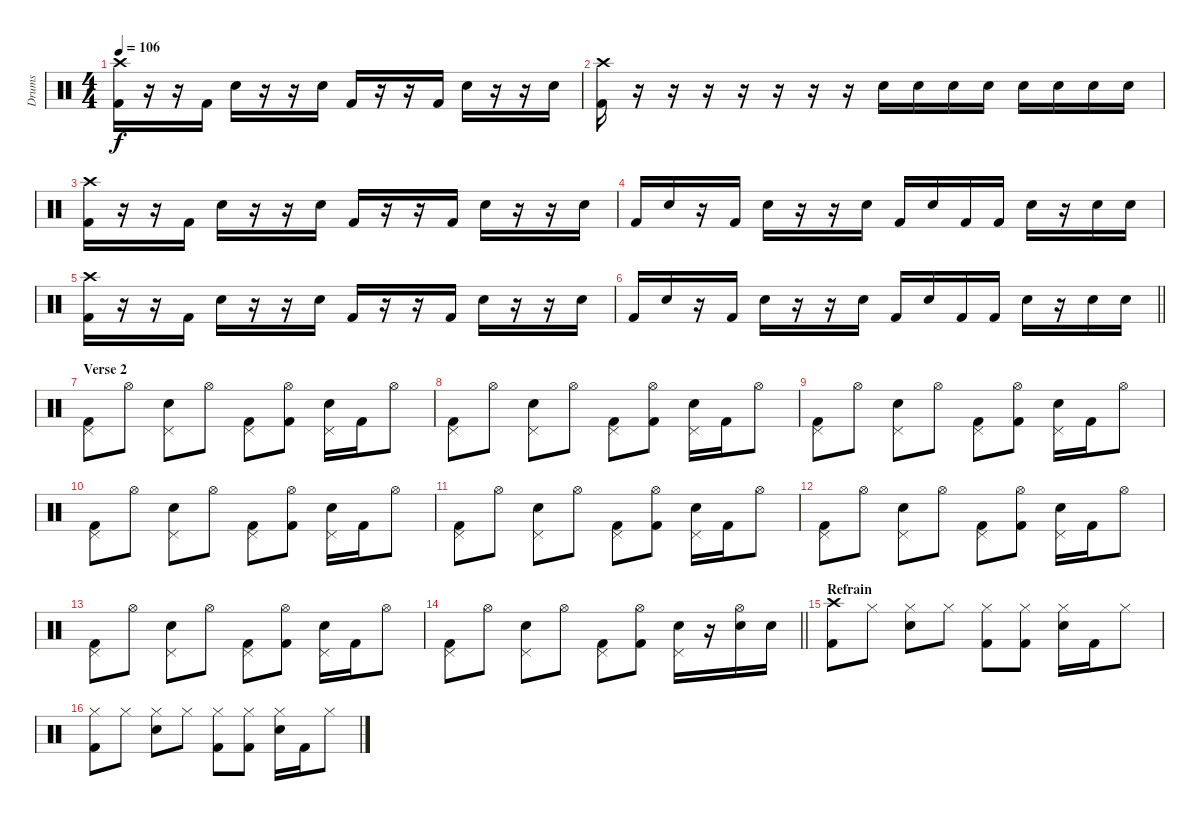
\track ("Drums" "Drums") {instrument percussion}
\staff {score}
\articulation defaults
\ts (4 4)
\tempo 106
\clef neutral
\ks c
("Crash high (hit)" "Kick (hit) 2").16{dy f} r.16 r.16 "Kick (hit) 2".16 "Electric Snare (hit)".16 r.16 r.16 "Electric Snare (hit)".16 "Kick (hit) 2".16 r.16 r.16 "Kick (hit) 2".16 "Electric Snare (hit)".16 r.16 r.16 "Electric Snare (hit)".16 |
("Crash high (hit)" "Kick (hit) 2").16 r.16 r.16 r.16 r.16 r.16 r.16 r.16 "Snare (hit) 2".16 "Snare (hit) 2".16 "Snare (hit) 2".16 "Snare (hit) 2".16 "Snare (hit) 2".16 "Snare (hit) 2".16 "Snare (hit) 2".16 "Snare (hit) 2".16 |
("Crash high (hit)" "Kick (hit) 2").16 r.16 r.16 "Kick (hit) 2".16 "Electric Snare (hit)".16 r.16 r.16 "Electric Snare (hit)".16 "Kick (hit) 2".16 r.16 r.16 "Kick (hit) 2".16 "Electric Snare (hit)".16 r.16 r.16 "Electric Snare (hit)".16 |
"Kick (hit) 2".16 "Electric Snare (hit)".16 r.16 "Kick (hit) 2".16 "Electric Snare (hit)".16 r.16 r.16 "Electric Snare (hit)".16 "Kick (hit) 2".16 "Electric Snare (hit)".16 "Kick (hit) 2".16 "Kick (hit) 2".16 "Electric Snare (hit)".16 r.16 "Electric Snare (hit)".16 "Electric Snare (hit)".16 |
("Crash high (hit)" "Kick (hit) 2").16 r.16 r.16 "Kick (hit) 2".16 "Electric Snare (hit)".16 r.16 r.16 "Electric Snare (hit)".16 "Kick (hit) 2".16 r.16 r.16 "Kick (hit) 2".16 "Electric Snare (hit)".16 r.16 r.16 "Electric Snare (hit)".16 |
\barLineRight lightlight "Kick (hit) 2".16 "Electric Snare (hit)".16
r.16 "Kick (hit) 2".16 "Electric Snare (hit)".16 r.16 r.16 "Electric Snare (hit)".16 "Kick (hit) 2".16 "Electric Snare (hit)".16 "Kick (hit) 2".16 "Kick (hit) 2".16 "Electric Snare (hit)".16 r.16 "Electric Snare (hit)".16 "Electric Snare (hit)".16 |
\section ("" "Verse 2")
("Pedal Hi-Hat (hit)" "Kick (hit) 2").8 "Hi-Hat (open)".8 ("Pedal Hi-Hat (hit)" "Electric Snare (hit)").8 "Hi-Hat (open)".8 ("Pedal Hi-Hat (hit)" "Kick (hit) 2").8 ("Hi-Hat (open)" "Kick (hit) 2").8 ("Pedal Hi-Hat (hit)" "Electric Snare (hit)").16 "Kick (hit) 2".16 "Hi-Hat (open)".8 |
("Pedal Hi-Hat (hit)" "Kick (hit) 2").8 "Hi-Hat (open)".8 ("Pedal Hi-Hat (hit)" "Electric Snare (hit)").8 "Hi-Hat (open)".8 ("Pedal Hi-Hat (hit)" "Kick (hit) 2").8 ("Hi-Hat (open)" "Kick (hit) 2").8 ("Pedal Hi-Hat (hit)" "Electric Snare (hit)").16 "Kick (hit) 2".16 "Hi-Hat (open)".8 |
("Pedal Hi-Hat (hit)" "Kick (hit) 2").8 "Hi-Hat (open)".8 ("Pedal Hi-Hat (hit)" "Electric Snare (hit)").8 "Hi-Hat (open)".8 ("Pedal Hi-Hat (hit)" "Kick (hit) 2").8 ("Hi-Hat (open)" "Kick (hit) 2").8 ("Pedal Hi-Hat (hit)" "Electric Snare (hit)").16 "Kick (hit) 2".16 "Hi-Hat (open)".8 |
("Pedal Hi-Hat (hit)" "Kick (hit) 2").8 "Hi-Hat (open)".8 ("Pedal Hi-Hat (hit)" "Electric Snare (hit)").8 "Hi-Hat (open)".8 ("Pedal Hi-Hat (hit)" "Kick (hit) 2").8 ("Hi-Hat (open)" "Kick (hit) 2").8 ("Pedal Hi-Hat (hit)" "Electric Snare (hit)").16 "Kick (hit) 2".16 "Hi-Hat (open)".8 |
("Pedal Hi-Hat (hit)" "Kick (hit) 2").8 "Hi-Hat (open)".8 ("Pedal Hi-Hat (hit)" "Electric Snare (hit)").8 "Hi-Hat (open)".8 ("Pedal Hi-Hat (hit)" "Kick (hit) 2").8 ("Hi-Hat (open)" "Kick (hit) 2").8 ("Pedal Hi-Hat (hit)" "Electric Snare (hit)").16 "Kick (hit) 2".16 "Hi-Hat (open)".8 |
("Pedal Hi-Hat (hit)" "Kick (hit) 2").8 "Hi-Hat (open)".8 ("Pedal Hi-Hat (hit)" "Electric Snare (hit)").8 "Hi-Hat (open)".8 ("Pedal Hi-Hat (hit)" "Kick (hit) 2").8 ("Hi-Hat (open)" "Kick (hit) 2").8 ("Pedal Hi-Hat (hit)" "Electric Snare (hit)").16 "Kick (hit) 2".16 "Hi-Hat (open)".8 |
("Pedal Hi-Hat (hit)" "Kick (hit) 2").8 "Hi-Hat (open)".8 ("Pedal Hi-Hat (hit)" "Electric Snare (hit)").8 "Hi-Hat (open)".8 ("Pedal Hi-Hat (hit)" "Kick (hit) 2").8 ("Hi-Hat (open)" "Kick (hit) 2").8 ("Pedal Hi-Hat (hit)" "Electric Snare (hit)").16 "Kick (hit) 2".16 "Hi-Hat (open)".8 |
\barLineRight lightlight
("Pedal Hi-Hat (hit)" "Kick (hit) 2").8 "Hi-Hat (open)".8 ("Pedal Hi-Hat (hit)" "Electric Snare (hit)").8 "Hi-Hat (open)".8 ("Pedal Hi-Hat (hit)" "Kick (hit) 2").8 ("Hi-Hat (open)" "Kick (hit) 2").8 ("Pedal Hi-Hat (hit)" "Electric Snare (hit)").16 r.16 ("Hi-Hat (open)" "Electric Snare (hit)").16 "Electric Snare (hit)".16 |
\section ("" "Refrain")
("Crash high (hit)" "Kick (hit) 2").8 "Hi-Hat (closed)".8 ("Hi-Hat (closed)" "Electric Snare (hit)").8 "Hi-Hat (closed)".8 ("Hi-Hat (closed)" "Kick (hit) 2").8 ("Hi-Hat (closed)" "Kick (hit) 2").8 ("Hi-Hat (closed)" "Electric Snare (hit)").16 "Kick (hit) 2".16 "Hi-Hat (closed)".8 |
("Hi-Hat (closed)" "Kick (hit) 2").8 "Hi-Hat (closed)".8 ("Hi-Hat (closed)" "Electric Snare (hit)").8 "Hi-Hat (closed)".8 ("Hi-Hat (closed)" "Kick (hit) 2").8 ("Hi-Hat (closed)" "Kick (hit) 2").8 ("Hi-Hat (closed)" "Electric Snare (hit)").16 "Kick (hit) 2".16 "Hi-Hat (closed)".8
